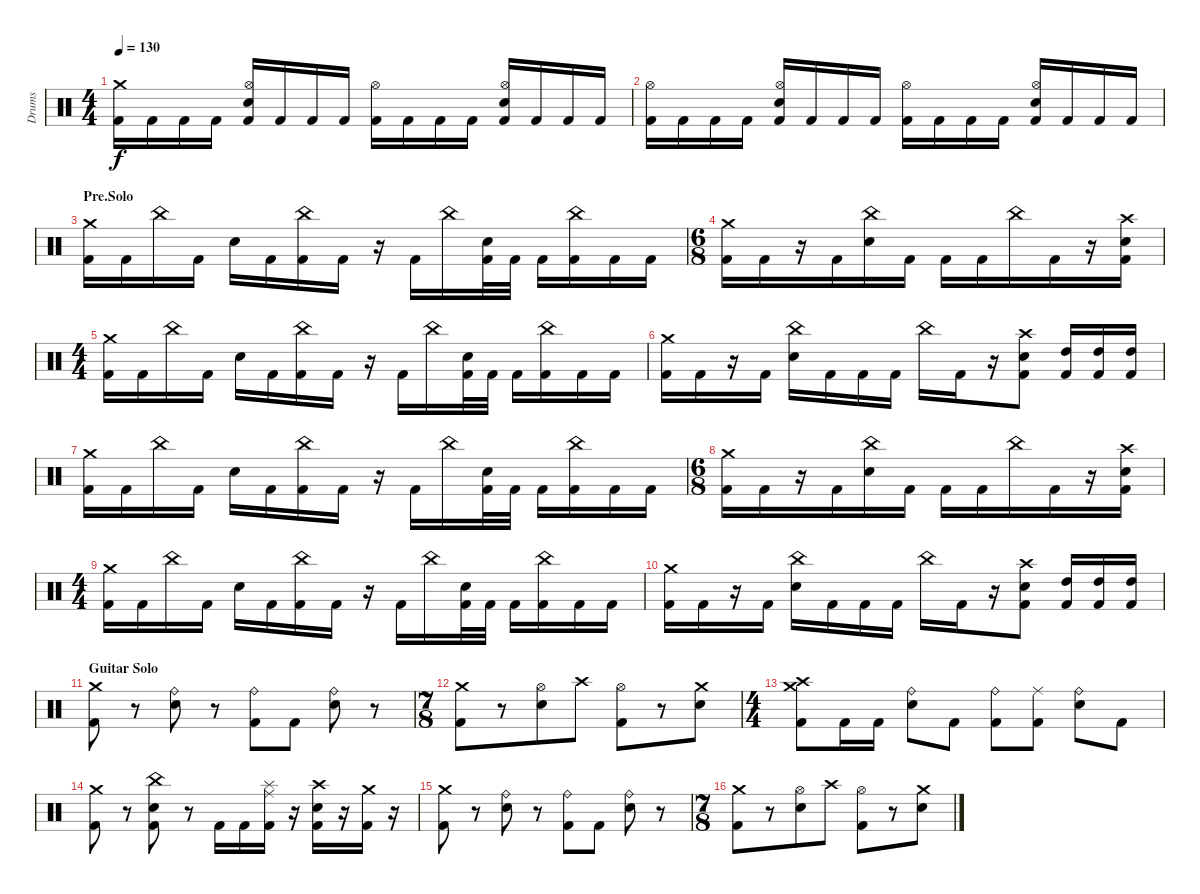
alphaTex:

\track ("Drums" "Drums") {instrument percussion}
\staff {score}
\articulation defaults
\ts (4 4)
\tempo 130
\clef neutral
\ks c
("Crash medium (hit)" "Kick (hit) 2").16{dy f} "Kick (hit) 2".16 "Kick (hit) 2".16 "Kick (hit) 2".16 ("Hi-Hat (open)" "Electric Snare (hit)" "Kick (hit) 2").16 "Kick (hit) 2".16 "Kick (hit) 2".16 "Kick (hit) 2".16 ("Hi-Hat (open)" "Kick (hit) 2").16 "Kick (hit) 2".16 "Kick (hit) 2".16 "Kick (hit) 2".16 ("Hi-Hat (open)" "Electric Snare (hit)" "Kick (hit) 2").16 "Kick (hit) 2".16 "Kick (hit) 2".16 "Kick (hit) 2".16 |
("Hi-Hat (open)" "Kick (hit) 2").16 "Kick (hit) 2".16 "Kick (hit) 2".16 "Kick (hit) 2".16 ("Hi-Hat (open)" "Electric Snare (hit)" "Kick (hit) 2").16 "Kick (hit) 2".16 "Kick (hit) 2".16 "Kick (hit) 2".16 ("Hi-Hat (open)" "Kick (hit) 2").16 "Kick (hit) 2".16 "Kick (hit) 2".16 "Kick (hit) 2".16 ("Hi-Hat (open)" "Electric Snare (hit)" "Kick (hit) 2").16 "Kick (hit) 2".16 "Kick (hit) 2".16 "Kick (hit) 2".16 |
\section ("" "Pre.Solo")
("Crash medium (hit)" "Kick (hit) 2").16 "Kick (hit) 2".16 "China (hit)".16 "Kick (hit) 2".16 "Electric Snare (hit)".16 "Kick (hit) 2".16 ("China (hit)" "Kick (hit) 2").16 "Kick (hit) 2".16 r.16 "Kick (hit) 2".16 "China (hit)".16 ("Electric Snare (hit)" "Kick (hit) 2").32 "Kick (hit) 2".32 "Kick (hit) 2".16 ("China (hit)" "Kick (hit) 2").16 "Kick (hit) 2".16 "Kick (hit) 2".16 |
\ts (6 8)
("Crash medium (hit)" "Kick (hit) 2").16 "Kick (hit) 2".16 r.16 "Kick (hit) 2".16 ("China (hit)" "Electric Snare (hit)").16 "Kick (hit) 2".16 "Kick (hit) 2".16 "Kick (hit) 2".16 "China (hit)".16 "Kick (hit) 2".16 r.16 ("Crash high (hit)" "Electric Snare (hit)" "Kick (hit) 2").16 |
\ts (4 4)
("Crash medium (hit)" "Kick (hit) 2").16 "Kick (hit) 2".16 "China (hit)".16 "Kick (hit) 2".16 "Electric Snare (hit)".16 "Kick (hit) 2".16 ("China (hit)" "Kick (hit) 2").16 "Kick (hit) 2".16 r.16 "Kick (hit) 2".16 "China (hit)".16 ("Electric Snare (hit)" "Kick (hit) 2").32 "Kick (hit) 2".32 "Kick (hit) 2".16 ("China (hit)" "Kick (hit) 2").16 "Kick (hit) 2".16 "Kick (hit) 2".16 |
("Crash medium (hit)" "Kick (hit) 2").16 "Kick (hit) 2".16 r.16 "Kick (hit) 2".16 ("China (hit)" "Electric Snare (hit)").16 "Kick (hit) 2".16 "Kick (hit) 2".16 "Kick (hit) 2".16 "China (hit)".16 "Kick (hit) 2".16 r.16 ("Crash high (hit)" "Electric Snare (hit)" "Kick (hit) 2").8 ("High Tom (hit)" "Kick (hit) 2").16 ("High Tom (hit)" "Kick (hit) 2").16 ("High Tom (hit)" "Kick (hit) 2").16 |
("Crash medium (hit)" "Kick (hit) 2").16 "Kick (hit) 2".16 "China (hit)".16 "Kick (hit) 2".16 "Electric Snare (hit)".16 "Kick (hit) 2".16 ("China (hit)" "Kick (hit) 2").16 "Kick (hit) 2".16 r.16 "Kick (hit) 2".16 "China (hit)".16 ("Electric Snare (hit)" "Kick (hit) 2").32 "Kick (hit) 2".32 "Kick (hit) 2".16 ("China (hit)" "Kick (hit) 2").16 "Kick (hit) 2".16 "Kick (hit) 2".16 |
\ts (6 8)
("Crash medium (hit)" "Kick (hit) 2").16 "Kick (hit) 2".16 r.16 "Kick (hit) 2".16 ("China (hit)" "Electric Snare (hit)").16 "Kick (hit) 2".16 "Kick (hit) 2".16 "Kick (hit) 2".16 "China (hit)".16 "Kick (hit) 2".16 r.16 ("Crash high (hit)" "Electric Snare (hit)" "Kick (hit) 2").16 |
\ts (4 4)
("Crash medium (hit)" "Kick (hit) 2").16 "Kick (hit) 2".16 "China (hit)".16 "Kick (hit) 2".16 "Electric Snare (hit)".16 "Kick (hit) 2".16 ("China (hit)" "Kick (hit) 2").16 "Kick (hit) 2".16 r.16 "Kick (hit) 2".16 "China (hit)".16 ("Electric Snare (hit)" "Kick (hit) 2").32 "Kick (hit) 2".32 "Kick (hit) 2".16 ("China (hit)" "Kick (hit) 2").16 "Kick (hit) 2".16 "Kick (hit) 2".16 |
("Crash medium (hit)" "Kick (hit) 2").16 "Kick (hit) 2".16 r.16 "Kick (hit) 2".16 ("China (hit)" "Electric Snare (hit)").16 "Kick (hit) 2".16 "Kick (hit) 2".16 "Kick (hit) 2".16 "China (hit)".16 "Kick (hit) 2".16 r.16 ("Crash high (hit)" "Electric Snare (hit)" "Kick (hit) 2").8 ("High Tom (hit)" "Kick (hit) 2").16 ("High Tom (hit)" "Kick (hit) 2").16 ("High Tom (hit)" "Kick (hit) 2").16 |
\section ("" "Guitar Solo")
("Crash medium (hit)" "Kick (hit) 2").8 r.8 ("Ride (bell)" "Electric Snare (hit)").8 r.8 ("Ride (bell)" "Kick (hit) 2").8 "Kick (hit) 2".8 ("Ride (bell)" "Electric Snare (hit)").8 r.8 |
\ts (7 8)
("Crash medium (hit)" "Kick (hit) 2").8 r.8 ("Hi-Hat (open)" "Electric Snare (hit)").8 "Crash high (hit)".8 ("Hi-Hat (open)" "Kick (hit) 2").8 r.8 ("Crash medium (hit)" "Electric Snare (hit)").8 |
\ts (4 4)
("Crash medium (hit)" "Crash high (hit)" "Kick (hit) 2").8 "Kick (hit) 2".16 "Kick (hit) 2".16 ("Ride (bell)" "Electric Snare (hit)").8 "Kick (hit) 2".8 ("Ride (bell)" "Kick (hit) 2").8 ("Ride (middle)" "Kick (hit) 2").8 ("Ride (bell)" "Electric Snare (hit)").8 "Kick (hit) 2".8 |
("Crash medium (hit)" "Kick (hit) 2").8 r.8 ("China (hit)" "Electric Snare (hit)" "Kick (hit) 2").8 r.8 "Kick (hit) 2".16 "Kick (hit) 2".16 ("Splash (hit)" "Ride (middle)" "Kick (hit) 2").16 r.16 ("Crash high (hit)" "Electric Snare (hit)" "Kick (hit) 2").16 r.16 ("Crash medium (hit)" "Kick (hit) 2").16 r.16 |
("Crash medium (hit)" "Kick (hit) 2").8 r.8 ("Ride (bell)" "Electric Snare (hit)").8 r.8 ("Ride (bell)" "Kick (hit) 2").8 "Kick (hit) 2".8 ("Ride (bell)" "Electric Snare (hit)").8 r.8 |
\ts (7 8)
("Crash medium (hit)" "Kick (hit) 2").8 r.8 ("Hi-Hat (open)" "Electric Snare (hit)").8 "Crash high (hit)".8 ("Hi-Hat (open)" "Kick (hit) 2").8 r.8 ("Crash medium (hit)" "Electric Snare (hit)").8
